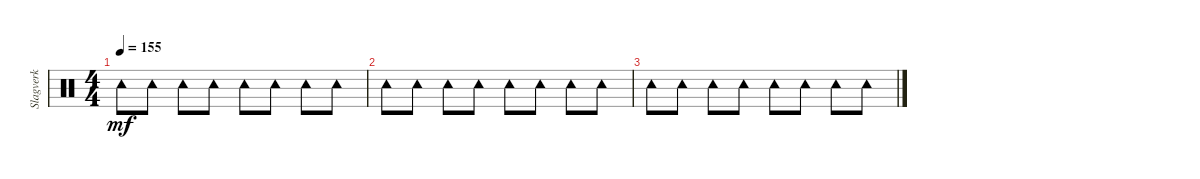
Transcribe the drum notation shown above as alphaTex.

\track ("Slagverk" "Slagverk") {instrument percussion}
\staff {score}
\articulation defaults
\ts (4 4)
\tempo 155
\clef neutral
\ks c "Tambourine (hit)".8{dy mf} "Tambourine (hit)".8 "Tambourine (hit)".8 "Tambourine (hit)".8 "Tambourine (hit)".8 "Tambourine (hit)".8 "Tambourine (hit)".8 "Tambourine (hit)".8
|
"Tambourine (hit)".8 "Tambourine (hit)".8 "Tambourine (hit)".8 "Tambourine (hit)".8 "Tambourine (hit)".8 "Tambourine (hit)".8 "Tambourine (hit)".8 "Tambourine (hit)".8 |
"Tambourine (hit)".8 "Tambourine (hit)".8 "Tambourine (hit)".8 "Tambourine (hit)".8 "Tambourine (hit)".8 "Tambourine (hit)".8 "Tambourine (hit)".8 "Tambourine (hit)".8
